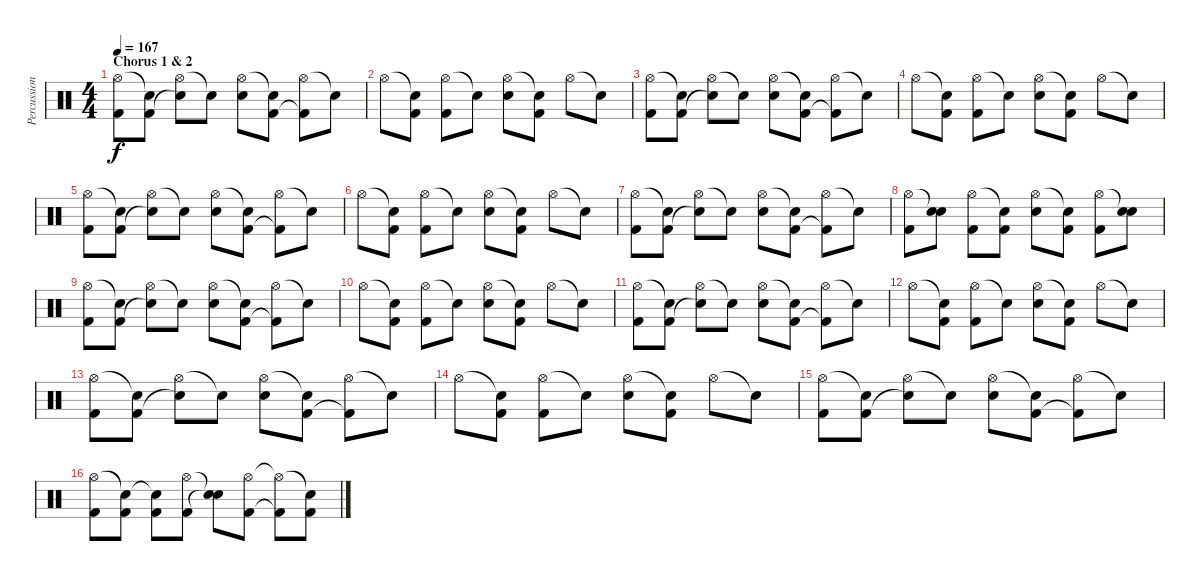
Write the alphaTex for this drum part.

\track ("Percussion" "Percussion") {instrument percussion}
\staff {score}
\articulation defaults
\ts (4 4)
\section ("" "Chorus 1 & 2")
\tempo 167
\clef neutral
\ks c
("Hi-Hat (open)" "Kick (hit) 2").8{dy f} ("Snare (hit)"{t} "Kick (hit) 2").8 ("Hi-Hat (open)" "Snare (hit)"{t}).8 "Snare (hit)"{t}.8 ("Hi-Hat (open)" "Electric Snare (hit)").8 ("Snare (hit)"{t} "Kick (hit) 2").8 ("Hi-Hat (open)" "Kick (hit) 2"{t}).8 "Snare (hit)"{t}.8 |
"Hi-Hat (open)".8 ("Snare (hit)"{t} "Kick (hit) 2").8 ("Hi-Hat (open)" "Kick (hit) 2").8 "Snare (hit)"{t}.8 ("Hi-Hat (open)" "Electric Snare (hit)").8 ("Snare (hit)"{t} "Kick (hit) 2").8 "Hi-Hat (open)".8 "Snare (hit)"{t}.8 |
("Hi-Hat (open)" "Kick (hit) 2").8 ("Snare (hit)"{t} "Kick (hit) 2").8 ("Hi-Hat (open)" "Snare (hit)"{t}).8 "Snare (hit)"{t}.8 ("Hi-Hat (open)" "Electric Snare (hit)").8 ("Snare (hit)"{t} "Kick (hit) 2").8 ("Hi-Hat (open)" "Kick (hit) 2"{t}).8 "Snare (hit)"{t}.8 |
"Hi-Hat (open)".8 ("Snare (hit)"{t} "Kick (hit) 2").8 ("Hi-Hat (open)" "Kick (hit) 2").8 "Snare (hit)"{t}.8 ("Hi-Hat (open)" "Electric Snare (hit)").8 ("Snare (hit)"{t} "Kick (hit) 2").8 "Hi-Hat (open)".8 "Snare (hit)"{t}.8 |
("Hi-Hat (open)" "Kick (hit) 2").8 ("Snare (hit)"{t} "Kick (hit) 2").8 ("Hi-Hat (open)" "Snare (hit)"{t}).8 "Snare (hit)"{t}.8 ("Hi-Hat (open)" "Electric Snare (hit)").8 ("Snare (hit)"{t} "Kick (hit) 2").8 ("Hi-Hat (open)" "Kick (hit) 2"{t}).8 "Snare (hit)"{t}.8 |
"Hi-Hat (open)".8 ("Snare (hit)"{t} "Kick (hit) 2").8 ("Hi-Hat (open)" "Kick (hit) 2").8 "Snare (hit)"{t}.8 ("Hi-Hat (open)" "Electric Snare (hit)").8 ("Snare (hit)"{t} "Kick (hit) 2").8 "Hi-Hat (open)".8 "Snare (hit)"{t}.8 |
("Hi-Hat (open)" "Kick (hit) 2").8 ("Snare (hit)"{t} "Kick (hit) 2").8 ("Hi-Hat (open)" "Snare (hit)"{t}).8 "Snare (hit)"{t}.8 ("Hi-Hat (open)" "Electric Snare (hit)").8 ("Snare (hit)"{t} "Kick (hit) 2").8 ("Hi-Hat (open)" "Kick (hit) 2"{t}).8 "Snare (hit)"{t}.8 |
("Hi-Hat (open)" "Kick (hit) 2").8 ("Snare (hit)"{t} "Electric Snare (hit)").8 ("Hi-Hat (open)" "Kick (hit) 2").8 ("Snare (hit)"{t} "Kick (hit) 2").8 ("Hi-Hat (open)" "Electric Snare (hit)").8 ("Snare (hit)"{t} "Kick (hit) 2").8 ("Hi-Hat (open)" "Kick (hit) 2").8 ("Snare (hit)"{t} "Electric Snare (hit)").8 |
("Hi-Hat (open)" "Kick (hit) 2").8 ("Snare (hit)"{t} "Kick (hit) 2").8 ("Hi-Hat (open)" "Snare (hit)"{t}).8 "Snare (hit)"{t}.8 ("Hi-Hat (open)" "Electric Snare (hit)").8 ("Snare (hit)"{t} "Kick (hit) 2").8 ("Hi-Hat (open)" "Kick (hit) 2"{t}).8 "Snare (hit)"{t}.8 |
"Hi-Hat (open)".8 ("Snare (hit)"{t} "Kick (hit) 2").8 ("Hi-Hat (open)" "Kick (hit) 2").8 "Snare (hit)"{t}.8 ("Hi-Hat (open)" "Electric Snare (hit)").8 ("Snare (hit)"{t} "Kick (hit) 2").8 "Hi-Hat (open)".8 "Snare (hit)"{t}.8 |
("Hi-Hat (open)" "Kick (hit) 2").8 ("Snare (hit)"{t} "Kick (hit) 2").8 ("Hi-Hat (open)" "Snare (hit)"{t}).8 "Snare (hit)"{t}.8 ("Hi-Hat (open)" "Electric Snare (hit)").8 ("Snare (hit)"{t} "Kick (hit) 2").8 ("Hi-Hat (open)" "Kick (hit) 2"{t}).8 "Snare (hit)"{t}.8 |
"Hi-Hat (open)".8 ("Snare (hit)"{t} "Kick (hit) 2").8 ("Hi-Hat (open)" "Kick (hit) 2").8 "Snare (hit)"{t}.8 ("Hi-Hat (open)" "Electric Snare (hit)").8 ("Snare (hit)"{t} "Kick (hit) 2").8 "Hi-Hat (open)".8 "Snare (hit)"{t}.8 |
("Hi-Hat (open)" "Kick (hit) 2").8 ("Snare (hit)"{t} "Kick (hit) 2").8 ("Hi-Hat (open)" "Snare (hit)"{t}).8 "Snare (hit)"{t}.8 ("Hi-Hat (open)" "Electric Snare (hit)").8 ("Snare (hit)"{t} "Kick (hit) 2").8 ("Hi-Hat (open)" "Kick (hit) 2"{t}).8 "Snare (hit)"{t}.8 |
"Hi-Hat (open)".8 ("Snare (hit)"{t} "Kick (hit) 2").8 ("Hi-Hat (open)" "Kick (hit) 2").8 "Snare (hit)"{t}.8 ("Hi-Hat (open)" "Electric Snare (hit)").8 ("Snare (hit)"{t} "Kick (hit) 2").8 "Hi-Hat (open)".8 "Snare (hit)"{t}.8 |
("Hi-Hat (open)" "Kick (hit) 2").8 ("Snare (hit)"{t} "Kick (hit) 2").8 ("Hi-Hat (open)" "Snare (hit)"{t}).8 "Snare (hit)"{t}.8 ("Hi-Hat (open)" "Electric Snare (hit)").8 ("Snare (hit)"{t} "Kick (hit) 2").8 ("Hi-Hat (open)" "Kick (hit) 2"{t}).8 "Snare (hit)"{t}.8 |
("Hi-Hat (open)" "Kick (hit) 2").8 ("Snare (hit)"{t} "Kick (hit) 2").8 ("Snare (hit)"{t} "Kick (hit) 2").8 ("Hi-Hat (open)" "Kick (hit) 2").8 ("Snare (hit)"{t} "Snare (hit)"{t}).8 ("Hi-Hat (open)" "Kick (hit) 2").8 ("Hi-Hat (open)"{t} "Kick (hit) 2"{t}).8 ("Snare (hit)"{t} "Kick (hit) 2").8
